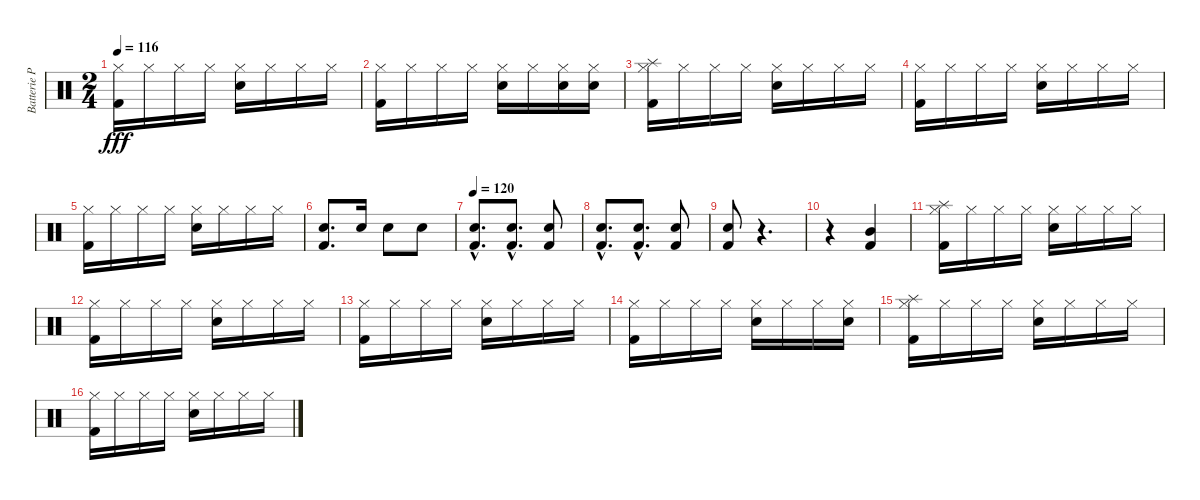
\track ("Batterie Pako" "Batterie P") {instrument percussion}
\staff {score}
\articulation defaults
\ts (2 4)
\tempo 116
\clef neutral
\ks c
("Kick (hit) 2" "Hi-Hat (closed)").16{dy fff} "Hi-Hat (closed)".16 "Hi-Hat (closed)".16 "Hi-Hat (closed)".16 ("Hi-Hat (closed)" "Electric Snare (hit)").16 "Hi-Hat (closed)".16 "Hi-Hat (closed)".16 "Hi-Hat (closed)".16 |
("Kick (hit) 2" "Hi-Hat (closed)").16 "Hi-Hat (closed)".16 "Hi-Hat (closed)".16 "Hi-Hat (closed)".16 ("Electric Snare (hit)" "Hi-Hat (closed)").16 "Hi-Hat (closed)".16 ("Electric Snare (hit)" "Hi-Hat (closed)").16 ("Electric Snare (hit)" "Hi-Hat (closed)").16 |
("Kick (hit) 2" "Hi-Hat (closed)" "Splash (hit)").16 "Hi-Hat (closed)".16 "Hi-Hat (closed)".16 "Hi-Hat (closed)".16 ("Hi-Hat (closed)" "Electric Snare (hit)").16 "Hi-Hat (closed)".16 "Hi-Hat (closed)".16 "Hi-Hat (closed)".16 |
("Kick (hit) 2" "Hi-Hat (closed)").16 "Hi-Hat (closed)".16 "Hi-Hat (closed)".16 "Hi-Hat (closed)".16 ("Hi-Hat (closed)" "Electric Snare (hit)").16 "Hi-Hat (closed)".16 "Hi-Hat (closed)".16 "Hi-Hat (closed)".16 |
("Kick (hit) 2" "Hi-Hat (closed)").16 "Hi-Hat (closed)".16 "Hi-Hat (closed)".16 "Hi-Hat (closed)".16 ("Hi-Hat (closed)" "Electric Snare (hit)").16 "Hi-Hat (closed)".16 "Hi-Hat (closed)".16 "Hi-Hat (closed)".16 |
("Kick (hit) 2" "Electric Snare (hit)").8{d} "Electric Snare (hit)".16 "Electric Snare (hit)".8 "Electric Snare (hit)".8 |
\tempo 120
("Kick (hit) 2"{hac} "Electric Snare (hit)"{hac}).8{d} ("Kick (hit) 2"{hac} "Electric Snare (hit)"{hac}).8{d} ("Kick (hit) 2" "Electric Snare (hit)").8 |
("Kick (hit) 2"{hac} "Electric Snare (hit)"{hac}).8{d} ("Kick (hit) 2"{hac} "Electric Snare (hit)"{hac}).8{d} ("Kick (hit) 2" "Electric Snare (hit)").8 |
("Kick (hit) 2" "Electric Snare (hit)").8 r.4{d} |
r.4 ("Kick (hit) 2" "Mid Tom (hit)").4 |
("Kick (hit) 2" "Hi-Hat (closed)" "Splash (hit)").16 "Hi-Hat (closed)".16 "Hi-Hat (closed)".16 "Hi-Hat (closed)".16 ("Hi-Hat (closed)" "Electric Snare (hit)").16 "Hi-Hat (closed)".16 "Hi-Hat (closed)".16 "Hi-Hat (closed)".16 |
("Kick (hit) 2" "Hi-Hat (closed)").16 "Hi-Hat (closed)".16 "Hi-Hat (closed)".16 "Hi-Hat (closed)".16 ("Hi-Hat (closed)" "Electric Snare (hit)").16 "Hi-Hat (closed)".16 "Hi-Hat (closed)".16 "Hi-Hat (closed)".16 |
("Kick (hit) 2" "Hi-Hat (closed)").16 "Hi-Hat (closed)".16 "Hi-Hat (closed)".16 "Hi-Hat (closed)".16 ("Hi-Hat (closed)" "Electric Snare (hit)").16 "Hi-Hat (closed)".16 "Hi-Hat (closed)".16 "Hi-Hat (closed)".16 |
("Kick (hit) 2" "Hi-Hat (closed)").16 "Hi-Hat (closed)".16 "Hi-Hat (closed)".16 "Hi-Hat (closed)".16 ("Electric Snare (hit)" "Hi-Hat (closed)").16 "Hi-Hat (closed)".16 "Hi-Hat (closed)".16 ("Electric Snare (hit)" "Hi-Hat (closed)").16 |
("Kick (hit) 2" "Hi-Hat (closed)" "Splash (hit)").16 "Hi-Hat (closed)".16 "Hi-Hat (closed)".16 "Hi-Hat (closed)".16 ("Hi-Hat (closed)" "Electric Snare (hit)").16 "Hi-Hat (closed)".16 "Hi-Hat (closed)".16 "Hi-Hat (closed)".16 |
("Kick (hit) 2" "Hi-Hat (closed)").16 "Hi-Hat (closed)".16 "Hi-Hat (closed)".16 "Hi-Hat (closed)".16 ("Hi-Hat (closed)" "Electric Snare (hit)").16 "Hi-Hat (closed)".16 "Hi-Hat (closed)".16 "Hi-Hat (closed)".16
